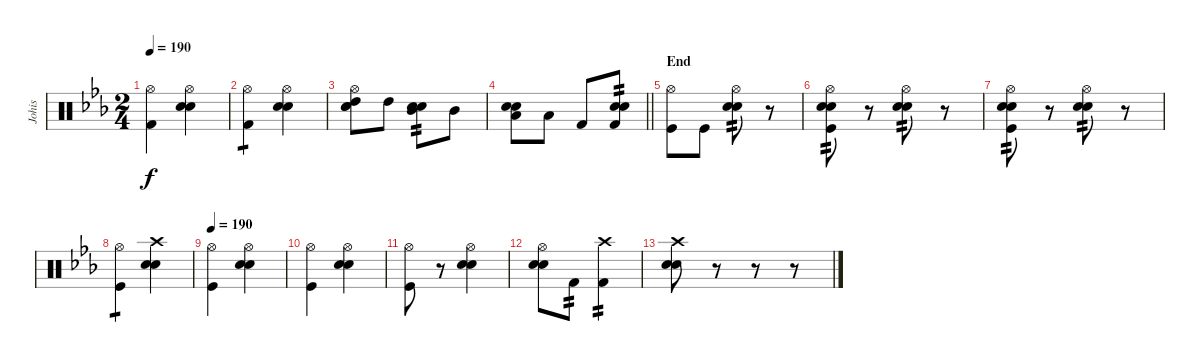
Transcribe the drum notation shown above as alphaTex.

\track ("Johis" "Johis") {instrument percussion}
\staff {score}
\articulation defaults
\ts (2 4)
\tempo 190
\clef neutral
\ks eb
("Hi-Hat (open)" "Kick (hit) 2").4{dy f} ("Hi-Hat (open)" "Electric Snare (hit)" "Snare (hit) 2").4 |
("Hi-Hat (open)" "Kick (hit) 2").4{tp 1} ("Hi-Hat (open)" "Electric Snare (hit)" "Snare (hit) 2").4 |
("Electric Snare (hit)" "Hi-Hat (open)" "Snare (hit) 2" "High Tom (hit)").8 "High Tom (hit)".8 ("Electric Snare (hit)" "Snare (hit) 2" "Mid Tom (hit)").8{tp 2} "Mid Tom (hit)".8 |
\barLineRight lightlight
("Electric Snare (hit)" "Snare (hit) 2" "Low Tom (hit)").8 "Low Tom (hit)".8 "Kick (hit) 2".8 ("Electric Snare (hit)" "Snare (hit) 2" "Kick (hit) 2").8{tp 2} |
\section ("" "End")
("Hi-Hat (open)" "Kick (hit)").8 "Kick (hit)".8 ("Hi-Hat (open)" "Electric Snare (hit)" "Snare (hit) 2").8{tp 2} r.8 |
("Hi-Hat (open)" "Electric Snare (hit)" "Snare (hit) 2" "Kick (hit)").8{tp 2} r.8 ("Hi-Hat (open)" "Electric Snare (hit)" "Snare (hit) 2").8{tp 2} r.8 |
("Hi-Hat (open)" "Electric Snare (hit)" "Snare (hit) 2" "Kick (hit)").8{tp 2} r.8 ("Hi-Hat (open)" "Electric Snare (hit)" "Snare (hit) 2").8{tp 2} r.8 |
("Hi-Hat (open)" "Kick (hit)").4{tp 1} ("Crash high (hit)" "Electric Snare (hit)" "Snare (hit) 2").4 |
\tempo 190
("Hi-Hat (open)" "Kick (hit)").4 ("Hi-Hat (open)" "Electric Snare (hit)" "Snare (hit) 2").4 |
("Hi-Hat (open)" "Kick (hit)").4 ("Hi-Hat (open)" "Electric Snare (hit)" "Snare (hit) 2").4 |
("Hi-Hat (open)" "Kick (hit)").8 r.8 ("Hi-Hat (open)" "Electric Snare (hit)" "Snare (hit) 2").4 |
("Hi-Hat (open)" "Electric Snare (hit)" "Snare (hit) 2").8 "Kick (hit) 2".8{tp 2} ("Crash high (hit)" "Kick (hit) 2").4{tp 2} |
("Crash high (hit)" "Electric Snare (hit)" "Snare (hit) 2").8 r.8 r.8 r.8
